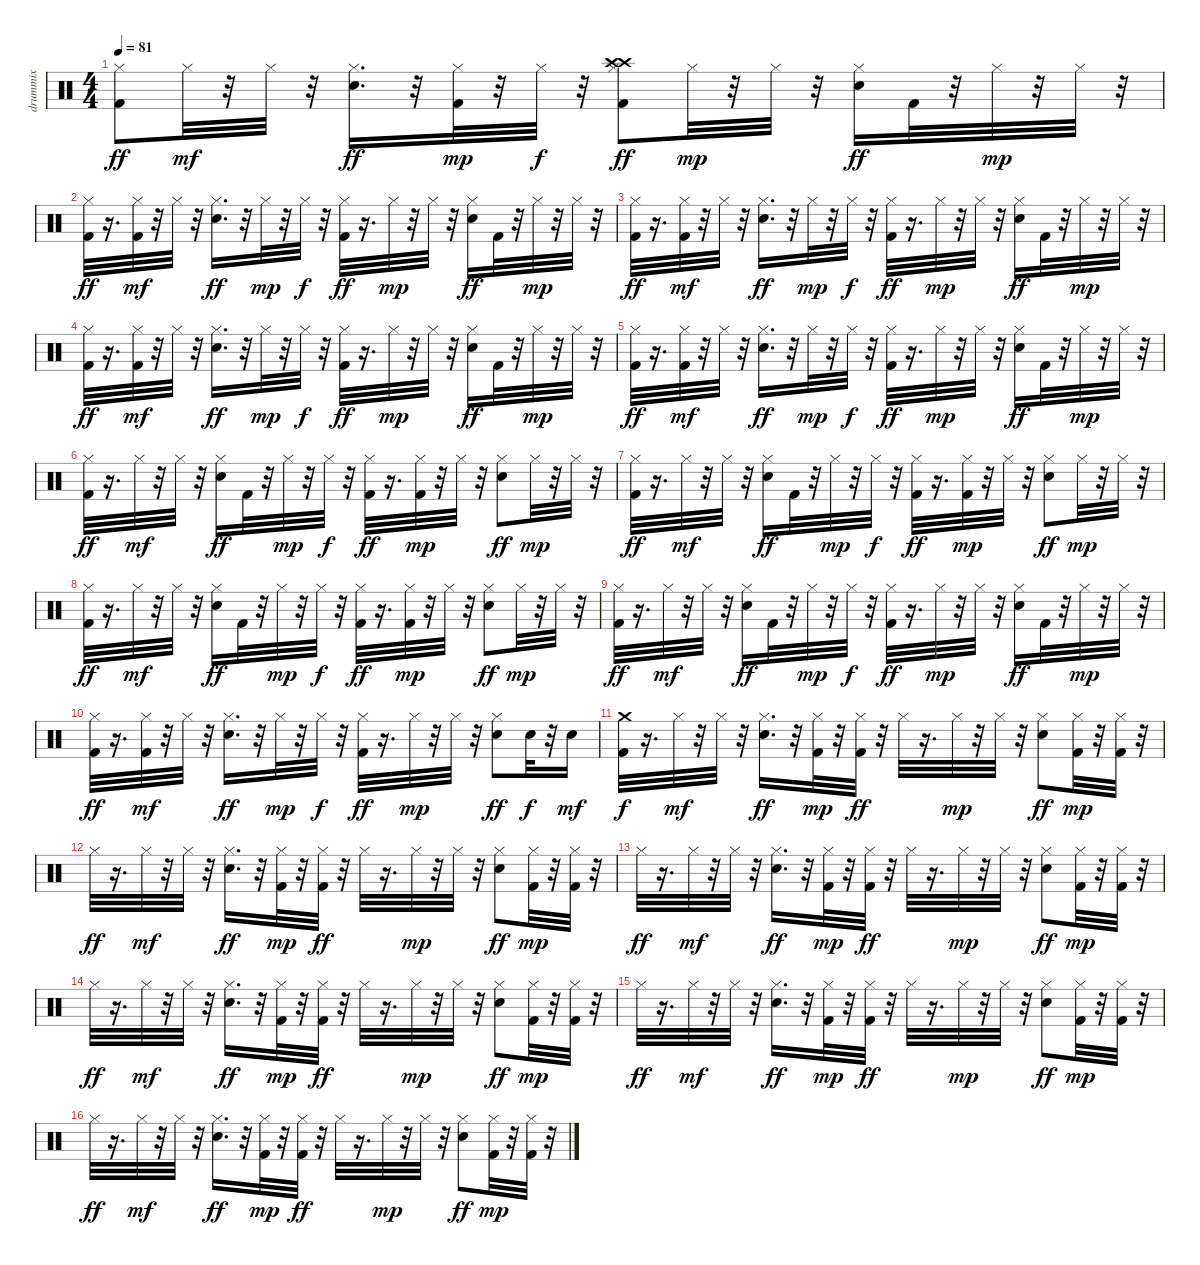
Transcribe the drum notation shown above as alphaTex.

\track ("drummix " "drummix ") {instrument percussion}
\staff {score}
\articulation defaults
\ts (4 4)
\tempo 81
\clef neutral
\ks c
("Kick (hit) 2" "Hi-Hat (closed)").8{dy ff} "Hi-Hat (closed)".32{dy mf} r.32 "Hi-Hat (closed)".32 r.32 ("Snare (hit) 2" "Hi-Hat (closed)").16{d dy ff} r.32 ("Kick (hit) 2" "Hi-Hat (closed)").32{dy mp} r.32 "Hi-Hat (closed)".32{dy f} r.32 ("Crash high (hit)" "Kick (hit) 2" "Hi-Hat (closed)" "Crash high (hit)").8{dy ff} "Hi-Hat (closed)".32{dy mp} r.32 "Hi-Hat (closed)".32 r.32 ("Snare (hit) 2" "Hi-Hat (closed)").16{dy ff} "Kick (hit) 2".32 r.32 "Hi-Hat (closed)".32{dy mp} r.32 "Hi-Hat (closed)".32 r.32 |
("Kick (hit) 2" "Hi-Hat (closed)").32{dy ff} r.16{d} ("Kick (hit) 2" "Hi-Hat (closed)").32{dy mf} r.32 "Hi-Hat (closed)".32 r.32 ("Snare (hit) 2" "Hi-Hat (closed)").16{d dy ff} r.32 "Hi-Hat (closed)".32{dy mp} r.32 "Hi-Hat (closed)".32{dy f} r.32 ("Kick (hit) 2" "Hi-Hat (closed)").32{dy ff} r.16{d} "Hi-Hat (closed)".32{dy mp} r.32 "Hi-Hat (closed)".32 r.32 ("Snare (hit) 2" "Hi-Hat (closed)").16{dy ff} "Kick (hit) 2".32 r.32 "Hi-Hat (closed)".32{dy mp} r.32 "Hi-Hat (closed)".32 r.32 |
("Kick (hit) 2" "Hi-Hat (closed)").32{dy ff} r.16{d} ("Kick (hit) 2" "Hi-Hat (closed)").32{dy mf} r.32 "Hi-Hat (closed)".32 r.32 ("Snare (hit) 2" "Hi-Hat (closed)").16{d dy ff} r.32 "Hi-Hat (closed)".32{dy mp} r.32 "Hi-Hat (closed)".32{dy f} r.32 ("Kick (hit) 2" "Hi-Hat (closed)").32{dy ff} r.16{d} "Hi-Hat (closed)".32{dy mp} r.32 "Hi-Hat (closed)".32 r.32 ("Snare (hit) 2" "Hi-Hat (closed)").16{dy ff} "Kick (hit) 2".32 r.32 "Hi-Hat (closed)".32{dy mp} r.32 "Hi-Hat (closed)".32 r.32 |
("Kick (hit) 2" "Hi-Hat (closed)").32{dy ff} r.16{d} ("Kick (hit) 2" "Hi-Hat (closed)").32{dy mf} r.32 "Hi-Hat (closed)".32 r.32 ("Snare (hit) 2" "Hi-Hat (closed)").16{d dy ff} r.32 "Hi-Hat (closed)".32{dy mp} r.32 "Hi-Hat (closed)".32{dy f} r.32 ("Kick (hit) 2" "Hi-Hat (closed)").32{dy ff} r.16{d} "Hi-Hat (closed)".32{dy mp} r.32 "Hi-Hat (closed)".32 r.32 ("Snare (hit) 2" "Hi-Hat (closed)").16{dy ff} "Kick (hit) 2".32 r.32 "Hi-Hat (closed)".32{dy mp} r.32 "Hi-Hat (closed)".32 r.32 |
("Kick (hit) 2" "Hi-Hat (closed)").32{dy ff} r.16{d} ("Kick (hit) 2" "Hi-Hat (closed)").32{dy mf} r.32 "Hi-Hat (closed)".32 r.32 ("Snare (hit) 2" "Hi-Hat (closed)").16{d dy ff} r.32 "Hi-Hat (closed)".32{dy mp} r.32 "Hi-Hat (closed)".32{dy f} r.32 ("Kick (hit) 2" "Hi-Hat (closed)").32{dy ff} r.16{d} "Hi-Hat (closed)".32{dy mp} r.32 "Hi-Hat (closed)".32 r.32 ("Snare (hit) 2" "Hi-Hat (closed)").16{dy ff} "Kick (hit) 2".32 r.32 "Hi-Hat (closed)".32{dy mp} r.32 "Hi-Hat (closed)".32 r.32 |
("Kick (hit) 2" "Hi-Hat (closed)").32{dy ff} r.16{d} "Hi-Hat (closed)".32{dy mf} r.32 "Hi-Hat (closed)".32 r.32 ("Snare (hit) 2" "Hi-Hat (closed)").16{dy ff} "Kick (hit) 2".32 r.32 "Hi-Hat (closed)".32{dy mp} r.32 "Hi-Hat (closed)".32{dy f} r.32 ("Kick (hit) 2" "Hi-Hat (closed)").32{dy ff} r.16{d} ("Kick (hit) 2" "Hi-Hat (closed)").32{dy mp} r.32 "Hi-Hat (closed)".32 r.32 ("Snare (hit) 2" "Hi-Hat (closed)").8{dy ff} "Hi-Hat (closed)".32{dy mp} r.32 "Hi-Hat (closed)".32 r.32 |
("Kick (hit) 2" "Hi-Hat (closed)").32{dy ff} r.16{d} "Hi-Hat (closed)".32{dy mf} r.32 "Hi-Hat (closed)".32 r.32 ("Snare (hit) 2" "Hi-Hat (closed)").16{dy ff} "Kick (hit) 2".32 r.32 "Hi-Hat (closed)".32{dy mp} r.32 "Hi-Hat (closed)".32{dy f} r.32 ("Kick (hit) 2" "Hi-Hat (closed)").32{dy ff} r.16{d} ("Kick (hit) 2" "Hi-Hat (closed)").32{dy mp} r.32 "Hi-Hat (closed)".32 r.32 ("Snare (hit) 2" "Hi-Hat (closed)").8{dy ff} "Hi-Hat (closed)".32{dy mp} r.32 "Hi-Hat (closed)".32 r.32 |
("Kick (hit) 2" "Hi-Hat (closed)").32{dy ff} r.16{d} "Hi-Hat (closed)".32{dy mf} r.32 "Hi-Hat (closed)".32 r.32 ("Snare (hit) 2" "Hi-Hat (closed)").16{dy ff} "Kick (hit) 2".32 r.32 "Hi-Hat (closed)".32{dy mp} r.32 "Hi-Hat (closed)".32{dy f} r.32 ("Kick (hit) 2" "Hi-Hat (closed)").32{dy ff} r.16{d} ("Kick (hit) 2" "Hi-Hat (closed)").32{dy mp} r.32 "Hi-Hat (closed)".32 r.32 ("Snare (hit) 2" "Hi-Hat (closed)").8{dy ff} "Hi-Hat (closed)".32{dy mp} r.32 "Hi-Hat (closed)".32 r.32 |
("Kick (hit) 2" "Hi-Hat (closed)").32{dy ff} r.16{d} "Hi-Hat (closed)".32{dy mf} r.32 "Hi-Hat (closed)".32 r.32 ("Snare (hit) 2" "Hi-Hat (closed)").16{dy ff} "Kick (hit) 2".32 r.32 "Hi-Hat (closed)".32{dy mp} r.32 "Hi-Hat (closed)".32{dy f} r.32 ("Kick (hit) 2" "Hi-Hat (closed)").32{dy ff} r.16{d} "Hi-Hat (closed)".32{dy mp} r.32 "Hi-Hat (closed)".32 r.32 ("Snare (hit) 2" "Hi-Hat (closed)").16{dy ff} "Kick (hit) 2".32 r.32 "Hi-Hat (closed)".32{dy mp} r.32 "Hi-Hat (closed)".32 r.32 |
("Kick (hit) 2" "Hi-Hat (closed)").32{dy ff} r.16{d} ("Kick (hit) 2" "Hi-Hat (closed)").32{dy mf} r.32 "Hi-Hat (closed)".32 r.32 ("Snare (hit) 2" "Hi-Hat (closed)").16{d dy ff} r.32 "Hi-Hat (closed)".32{dy mp} r.32 "Hi-Hat (closed)".32{dy f} r.32 ("Kick (hit) 2" "Hi-Hat (closed)").32{dy ff} r.16{d} "Hi-Hat (closed)".32{dy mp} r.32 "Hi-Hat (closed)".32 r.32 ("Snare (hit) 2" "Hi-Hat (closed)").8{dy ff} "Snare (hit) 2".32{dy f} r.32 "Snare (hit) 2".16{dy mf} |
("Kick (hit) 2" "Crash medium (hit)").32{dy f} r.16{d} "Hi-Hat (closed)".32{dy mf} r.32 "Hi-Hat (closed)".32 r.32 ("Snare (hit) 2" "Hi-Hat (closed)").16{d dy ff} r.32 ("Kick (hit) 2" "Hi-Hat (closed)").32{dy mp} r.32 ("Kick (hit) 2" "Hi-Hat (closed)").32{dy ff} r.32 "Hi-Hat (closed)".32 r.16{d} "Hi-Hat (closed)".32{dy mp} r.32 "Hi-Hat (closed)".32 r.32 ("Snare (hit) 2" "Hi-Hat (closed)").8{dy ff} ("Kick (hit) 2" "Hi-Hat (closed)").32{dy mp} r.32 ("Kick (hit) 2" "Hi-Hat (closed)").32 r.32 |
"Hi-Hat (closed)".32{dy ff} r.16{d} "Hi-Hat (closed)".32{dy mf} r.32 "Hi-Hat (closed)".32 r.32 ("Snare (hit) 2" "Hi-Hat (closed)").16{d dy ff} r.32 ("Kick (hit) 2" "Hi-Hat (closed)").32{dy mp} r.32 ("Kick (hit) 2" "Hi-Hat (closed)").32{dy ff} r.32 "Hi-Hat (closed)".32 r.16{d} "Hi-Hat (closed)".32{dy mp} r.32 "Hi-Hat (closed)".32 r.32 ("Snare (hit) 2" "Hi-Hat (closed)").8{dy ff} ("Kick (hit) 2" "Hi-Hat (closed)").32{dy mp} r.32 ("Kick (hit) 2" "Hi-Hat (closed)").32 r.32 |
"Hi-Hat (closed)".32{dy ff} r.16{d} "Hi-Hat (closed)".32{dy mf} r.32 "Hi-Hat (closed)".32 r.32 ("Snare (hit) 2" "Hi-Hat (closed)").16{d dy ff} r.32 ("Kick (hit) 2" "Hi-Hat (closed)").32{dy mp} r.32 ("Kick (hit) 2" "Hi-Hat (closed)").32{dy ff} r.32 "Hi-Hat (closed)".32 r.16{d} "Hi-Hat (closed)".32{dy mp} r.32 "Hi-Hat (closed)".32 r.32 ("Snare (hit) 2" "Hi-Hat (closed)").8{dy ff} ("Kick (hit) 2" "Hi-Hat (closed)").32{dy mp} r.32 ("Kick (hit) 2" "Hi-Hat (closed)").32 r.32 |
"Hi-Hat (closed)".32{dy ff} r.16{d} "Hi-Hat (closed)".32{dy mf} r.32 "Hi-Hat (closed)".32 r.32 ("Snare (hit) 2" "Hi-Hat (closed)").16{d dy ff} r.32 ("Kick (hit) 2" "Hi-Hat (closed)").32{dy mp} r.32 ("Kick (hit) 2" "Hi-Hat (closed)").32{dy ff} r.32 "Hi-Hat (closed)".32 r.16{d} "Hi-Hat (closed)".32{dy mp} r.32 "Hi-Hat (closed)".32 r.32 ("Snare (hit) 2" "Hi-Hat (closed)").8{dy ff} ("Kick (hit) 2" "Hi-Hat (closed)").32{dy mp} r.32 ("Kick (hit) 2" "Hi-Hat (closed)").32 r.32 |
"Hi-Hat (closed)".32{dy ff} r.16{d} "Hi-Hat (closed)".32{dy mf} r.32 "Hi-Hat (closed)".32 r.32 ("Snare (hit) 2" "Hi-Hat (closed)").16{d dy ff} r.32 ("Kick (hit) 2" "Hi-Hat (closed)").32{dy mp} r.32 ("Kick (hit) 2" "Hi-Hat (closed)").32{dy ff} r.32 "Hi-Hat (closed)".32 r.16{d} "Hi-Hat (closed)".32{dy mp} r.32 "Hi-Hat (closed)".32 r.32 ("Snare (hit) 2" "Hi-Hat (closed)").8{dy ff} ("Kick (hit) 2" "Hi-Hat (closed)").32{dy mp} r.32 ("Kick (hit) 2" "Hi-Hat (closed)").32 r.32 |
"Hi-Hat (closed)".32{dy ff} r.16{d} "Hi-Hat (closed)".32{dy mf} r.32 "Hi-Hat (closed)".32 r.32 ("Snare (hit) 2" "Hi-Hat (closed)").16{d dy ff} r.32 ("Kick (hit) 2" "Hi-Hat (closed)").32{dy mp} r.32 ("Kick (hit) 2" "Hi-Hat (closed)").32{dy ff} r.32 "Hi-Hat (closed)".32 r.16{d} "Hi-Hat (closed)".32{dy mp} r.32 "Hi-Hat (closed)".32 r.32 ("Snare (hit) 2" "Hi-Hat (closed)").8{dy ff} ("Kick (hit) 2" "Hi-Hat (closed)").32{dy mp} r.32 ("Kick (hit) 2" "Hi-Hat (closed)").32 r.32
